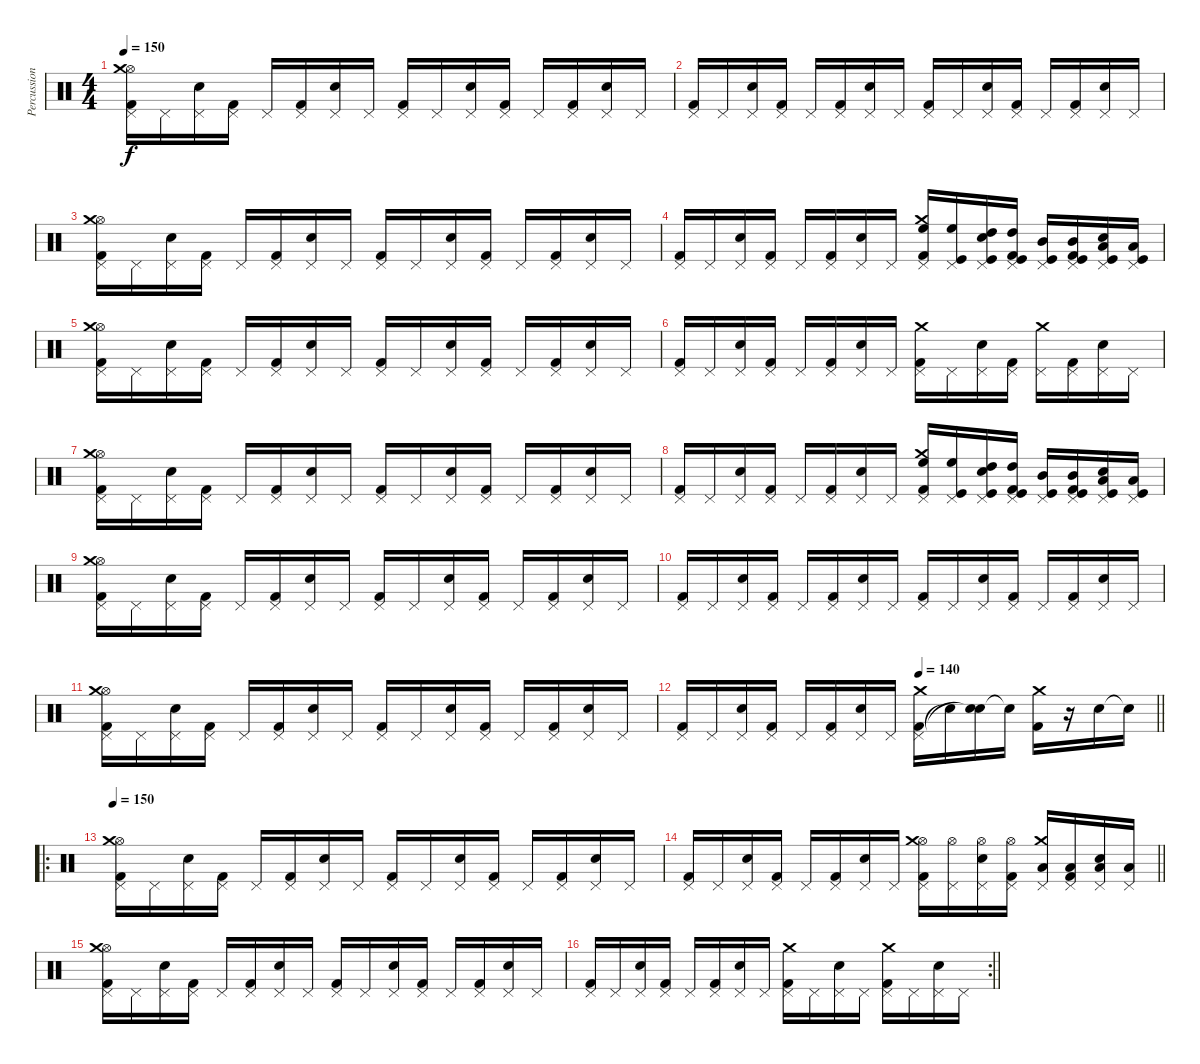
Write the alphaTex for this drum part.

\track ("Percussion" "Percussion") {instrument percussion}
\staff {score}
\articulation defaults
\ts (4 4)
\tempo 150
\clef neutral
\ks c
("Pedal Hi-Hat (hit)" "Kick (hit) 2" "Hi-Hat (open)" "Crash medium (hit)").16{dy f} "Pedal Hi-Hat (hit)".16 ("Pedal Hi-Hat (hit)" "Snare (hit) 2").16 ("Pedal Hi-Hat (hit)" "Kick (hit) 2").16 "Pedal Hi-Hat (hit)".16 ("Pedal Hi-Hat (hit)" "Kick (hit) 2").16 ("Pedal Hi-Hat (hit)" "Snare (hit) 2").16 "Pedal Hi-Hat (hit)".16 ("Pedal Hi-Hat (hit)" "Kick (hit) 2").16 "Pedal Hi-Hat (hit)".16 ("Pedal Hi-Hat (hit)" "Snare (hit) 2").16 ("Pedal Hi-Hat (hit)" "Kick (hit) 2").16 "Pedal Hi-Hat (hit)".16 ("Pedal Hi-Hat (hit)" "Kick (hit) 2").16 ("Pedal Hi-Hat (hit)" "Snare (hit) 2").16 "Pedal Hi-Hat (hit)".16 |
("Pedal Hi-Hat (hit)" "Kick (hit) 2").16 "Pedal Hi-Hat (hit)".16 ("Pedal Hi-Hat (hit)" "Snare (hit) 2").16 ("Pedal Hi-Hat (hit)" "Kick (hit) 2").16 "Pedal Hi-Hat (hit)".16 ("Pedal Hi-Hat (hit)" "Kick (hit) 2").16 ("Pedal Hi-Hat (hit)" "Snare (hit) 2").16 "Pedal Hi-Hat (hit)".16 ("Pedal Hi-Hat (hit)" "Kick (hit) 2").16 "Pedal Hi-Hat (hit)".16 ("Pedal Hi-Hat (hit)" "Snare (hit) 2").16 ("Pedal Hi-Hat (hit)" "Kick (hit) 2").16 "Pedal Hi-Hat (hit)".16 ("Pedal Hi-Hat (hit)" "Kick (hit) 2").16 ("Pedal Hi-Hat (hit)" "Snare (hit) 2").16 "Pedal Hi-Hat (hit)".16 |
("Pedal Hi-Hat (hit)" "Kick (hit) 2" "Hi-Hat (open)" "Crash medium (hit)").16 "Pedal Hi-Hat (hit)".16 ("Pedal Hi-Hat (hit)" "Snare (hit) 2").16 ("Pedal Hi-Hat (hit)" "Kick (hit) 2").16 "Pedal Hi-Hat (hit)".16 ("Pedal Hi-Hat (hit)" "Kick (hit) 2").16 ("Pedal Hi-Hat (hit)" "Snare (hit) 2").16 "Pedal Hi-Hat (hit)".16 ("Pedal Hi-Hat (hit)" "Kick (hit) 2").16 "Pedal Hi-Hat (hit)".16 ("Pedal Hi-Hat (hit)" "Snare (hit) 2").16 ("Pedal Hi-Hat (hit)" "Kick (hit) 2").16 "Pedal Hi-Hat (hit)".16 ("Pedal Hi-Hat (hit)" "Kick (hit) 2").16 ("Pedal Hi-Hat (hit)" "Snare (hit) 2").16 "Pedal Hi-Hat (hit)".16 |
("Pedal Hi-Hat (hit)" "Kick (hit) 2").16 "Pedal Hi-Hat (hit)".16 ("Pedal Hi-Hat (hit)" "Snare (hit) 2").16 ("Pedal Hi-Hat (hit)" "Kick (hit) 2").16 "Pedal Hi-Hat (hit)".16 ("Pedal Hi-Hat (hit)" "Kick (hit) 2").16 ("Pedal Hi-Hat (hit)" "Snare (hit) 2").16 "Pedal Hi-Hat (hit)".16 ("Pedal Hi-Hat (hit)" "Kick (hit) 2" "High Floor Tom (hit)" "Crash medium (hit)").16 ("Pedal Hi-Hat (hit)" "Kick (hit)" "High Floor Tom (hit)").16 ("Pedal Hi-Hat (hit)" "Snare (hit) 2" "Kick (hit)" "High Tom (hit)").16 ("Pedal Hi-Hat (hit)" "Kick (hit) 2" "Kick (hit)" "High Tom (hit)").16 ("Pedal Hi-Hat (hit)" "Kick (hit)" "Mid Tom (hit)").16 ("Pedal Hi-Hat (hit)" "Kick (hit) 2" "Kick (hit)" "Mid Tom (hit)").16 ("Pedal Hi-Hat (hit)" "Snare (hit) 2" "Kick (hit)" "Low Tom (hit)").16 ("Pedal Hi-Hat (hit)" "Kick (hit)" "Low Tom (hit)").16 |
("Pedal Hi-Hat (hit)" "Kick (hit) 2" "Hi-Hat (open)" "Crash medium (hit)").16 "Pedal Hi-Hat (hit)".16 ("Pedal Hi-Hat (hit)" "Snare (hit) 2").16 ("Pedal Hi-Hat (hit)" "Kick (hit) 2").16 "Pedal Hi-Hat (hit)".16 ("Pedal Hi-Hat (hit)" "Kick (hit) 2").16 ("Pedal Hi-Hat (hit)" "Snare (hit) 2").16 "Pedal Hi-Hat (hit)".16 ("Pedal Hi-Hat (hit)" "Kick (hit) 2").16 "Pedal Hi-Hat (hit)".16 ("Pedal Hi-Hat (hit)" "Snare (hit) 2").16 ("Pedal Hi-Hat (hit)" "Kick (hit) 2").16 "Pedal Hi-Hat (hit)".16 ("Pedal Hi-Hat (hit)" "Kick (hit) 2").16 ("Pedal Hi-Hat (hit)" "Snare (hit) 2").16 "Pedal Hi-Hat (hit)".16 |
("Pedal Hi-Hat (hit)" "Kick (hit) 2").16 "Pedal Hi-Hat (hit)".16 ("Pedal Hi-Hat (hit)" "Snare (hit) 2").16 ("Pedal Hi-Hat (hit)" "Kick (hit) 2").16 "Pedal Hi-Hat (hit)".16 ("Pedal Hi-Hat (hit)" "Kick (hit) 2").16 ("Pedal Hi-Hat (hit)" "Snare (hit) 2").16 "Pedal Hi-Hat (hit)".16 ("Pedal Hi-Hat (hit)" "Kick (hit) 2" "Crash medium (hit)").16 "Pedal Hi-Hat (hit)".16 ("Pedal Hi-Hat (hit)" "Snare (hit) 2").16 ("Pedal Hi-Hat (hit)" "Kick (hit) 2").16 ("Pedal Hi-Hat (hit)" "Crash medium (hit)").16 ("Pedal Hi-Hat (hit)" "Kick (hit) 2").16 ("Pedal Hi-Hat (hit)" "Snare (hit) 2").16 "Pedal Hi-Hat (hit)".16 |
("Pedal Hi-Hat (hit)" "Kick (hit) 2" "Hi-Hat (open)" "Crash medium (hit)").16 "Pedal Hi-Hat (hit)".16 ("Pedal Hi-Hat (hit)" "Snare (hit) 2").16 ("Pedal Hi-Hat (hit)" "Kick (hit) 2").16 "Pedal Hi-Hat (hit)".16 ("Pedal Hi-Hat (hit)" "Kick (hit) 2").16 ("Pedal Hi-Hat (hit)" "Snare (hit) 2").16 "Pedal Hi-Hat (hit)".16 ("Pedal Hi-Hat (hit)" "Kick (hit) 2").16 "Pedal Hi-Hat (hit)".16 ("Pedal Hi-Hat (hit)" "Snare (hit) 2").16 ("Pedal Hi-Hat (hit)" "Kick (hit) 2").16 "Pedal Hi-Hat (hit)".16 ("Pedal Hi-Hat (hit)" "Kick (hit) 2").16 ("Pedal Hi-Hat (hit)" "Snare (hit) 2").16 "Pedal Hi-Hat (hit)".16 |
("Pedal Hi-Hat (hit)" "Kick (hit) 2").16 "Pedal Hi-Hat (hit)".16 ("Pedal Hi-Hat (hit)" "Snare (hit) 2").16 ("Pedal Hi-Hat (hit)" "Kick (hit) 2").16 "Pedal Hi-Hat (hit)".16 ("Pedal Hi-Hat (hit)" "Kick (hit) 2").16 ("Pedal Hi-Hat (hit)" "Snare (hit) 2").16 "Pedal Hi-Hat (hit)".16 ("Pedal Hi-Hat (hit)" "Kick (hit) 2" "High Floor Tom (hit)" "Crash medium (hit)").16 ("Pedal Hi-Hat (hit)" "Kick (hit)" "High Floor Tom (hit)").16 ("Pedal Hi-Hat (hit)" "Snare (hit) 2" "Kick (hit)" "High Tom (hit)").16 ("Pedal Hi-Hat (hit)" "Kick (hit) 2" "Kick (hit)" "High Tom (hit)").16 ("Pedal Hi-Hat (hit)" "Kick (hit)" "Mid Tom (hit)").16 ("Pedal Hi-Hat (hit)" "Kick (hit) 2" "Kick (hit)" "Mid Tom (hit)").16 ("Pedal Hi-Hat (hit)" "Snare (hit) 2" "Kick (hit)" "Low Tom (hit)").16 ("Pedal Hi-Hat (hit)" "Kick (hit)" "Low Tom (hit)").16 |
("Pedal Hi-Hat (hit)" "Kick (hit) 2" "Hi-Hat (open)" "Crash medium (hit)").16 "Pedal Hi-Hat (hit)".16 ("Pedal Hi-Hat (hit)" "Snare (hit) 2").16 ("Pedal Hi-Hat (hit)" "Kick (hit) 2").16 "Pedal Hi-Hat (hit)".16 ("Pedal Hi-Hat (hit)" "Kick (hit) 2").16 ("Pedal Hi-Hat (hit)" "Snare (hit) 2").16 "Pedal Hi-Hat (hit)".16 ("Pedal Hi-Hat (hit)" "Kick (hit) 2").16 "Pedal Hi-Hat (hit)".16 ("Pedal Hi-Hat (hit)" "Snare (hit) 2").16 ("Pedal Hi-Hat (hit)" "Kick (hit) 2").16 "Pedal Hi-Hat (hit)".16 ("Pedal Hi-Hat (hit)" "Kick (hit) 2").16 ("Pedal Hi-Hat (hit)" "Snare (hit) 2").16 "Pedal Hi-Hat (hit)".16 |
("Pedal Hi-Hat (hit)" "Kick (hit) 2").16 "Pedal Hi-Hat (hit)".16 ("Pedal Hi-Hat (hit)" "Snare (hit) 2").16 ("Pedal Hi-Hat (hit)" "Kick (hit) 2").16 "Pedal Hi-Hat (hit)".16 ("Pedal Hi-Hat (hit)" "Kick (hit) 2").16 ("Pedal Hi-Hat (hit)" "Snare (hit) 2").16 "Pedal Hi-Hat (hit)".16 ("Pedal Hi-Hat (hit)" "Kick (hit) 2").16 "Pedal Hi-Hat (hit)".16 ("Pedal Hi-Hat (hit)" "Snare (hit) 2").16 ("Pedal Hi-Hat (hit)" "Kick (hit) 2").16 "Pedal Hi-Hat (hit)".16 ("Pedal Hi-Hat (hit)" "Kick (hit) 2").16 ("Pedal Hi-Hat (hit)" "Snare (hit) 2").16 "Pedal Hi-Hat (hit)".16 |
("Pedal Hi-Hat (hit)" "Kick (hit) 2" "Hi-Hat (open)" "Crash medium (hit)").16 "Pedal Hi-Hat (hit)".16 ("Pedal Hi-Hat (hit)" "Snare (hit) 2").16 ("Pedal Hi-Hat (hit)" "Kick (hit) 2").16 "Pedal Hi-Hat (hit)".16 ("Pedal Hi-Hat (hit)" "Kick (hit) 2").16 ("Pedal Hi-Hat (hit)" "Snare (hit) 2").16 "Pedal Hi-Hat (hit)".16 ("Pedal Hi-Hat (hit)" "Kick (hit) 2").16 "Pedal Hi-Hat (hit)".16 ("Pedal Hi-Hat (hit)" "Snare (hit) 2").16 ("Pedal Hi-Hat (hit)" "Kick (hit) 2").16 "Pedal Hi-Hat (hit)".16 ("Pedal Hi-Hat (hit)" "Kick (hit) 2").16 ("Pedal Hi-Hat (hit)" "Snare (hit) 2").16 "Pedal Hi-Hat (hit)".16 |
\tempo (140 0.5)
\barLineRight lightlight
("Pedal Hi-Hat (hit)" "Kick (hit) 2").16 "Pedal Hi-Hat (hit)".16 ("Pedal Hi-Hat (hit)" "Snare (hit) 2").16 ("Pedal Hi-Hat (hit)" "Kick (hit) 2").16 "Pedal Hi-Hat (hit)".16 ("Pedal Hi-Hat (hit)" "Kick (hit) 2").16 ("Pedal Hi-Hat (hit)" "Snare (hit) 2").16 "Pedal Hi-Hat (hit)".16 ("Pedal Hi-Hat (hit)" "Kick (hit) 2" "Crash medium (hit)").16 "Snare (hit)"{t}.16 ("Snare (hit) 2" "Snare (hit)"{t}).16 "Snare (hit)"{t}.16 ("Kick (hit) 2" "Crash medium (hit)").16 r.16 "Snare (hit) 2".16 "Snare (hit)"{t}.16 |
\ro
\tempo 150
("Pedal Hi-Hat (hit)" "Kick (hit) 2" "Hi-Hat (open)" "Crash medium (hit)").16 "Pedal Hi-Hat (hit)".16 ("Pedal Hi-Hat (hit)" "Snare (hit) 2").16 ("Pedal Hi-Hat (hit)" "Kick (hit) 2").16 "Pedal Hi-Hat (hit)".16 ("Pedal Hi-Hat (hit)" "Kick (hit) 2").16 ("Pedal Hi-Hat (hit)" "Snare (hit) 2").16 "Pedal Hi-Hat (hit)".16 ("Pedal Hi-Hat (hit)" "Kick (hit) 2").16 "Pedal Hi-Hat (hit)".16 ("Pedal Hi-Hat (hit)" "Snare (hit) 2").16 ("Pedal Hi-Hat (hit)" "Kick (hit) 2").16 "Pedal Hi-Hat (hit)".16 ("Pedal Hi-Hat (hit)" "Kick (hit) 2").16 ("Pedal Hi-Hat (hit)" "Snare (hit) 2").16 "Pedal Hi-Hat (hit)".16 |
\barLineRight lightlight
("Pedal Hi-Hat (hit)" "Kick (hit) 2").16 "Pedal Hi-Hat (hit)".16 ("Pedal Hi-Hat (hit)" "Snare (hit) 2").16 ("Pedal Hi-Hat (hit)" "Kick (hit) 2").16 "Pedal Hi-Hat (hit)".16 ("Pedal Hi-Hat (hit)" "Kick (hit) 2").16 ("Pedal Hi-Hat (hit)" "Snare (hit) 2").16 "Pedal Hi-Hat (hit)".16 ("Pedal Hi-Hat (hit)" "Kick (hit) 2" "Hi-Hat (open)" "Crash medium (hit)").16 ("Pedal Hi-Hat (hit)" "Hi-Hat (open)").16 ("Pedal Hi-Hat (hit)" "Snare (hit) 2" "Hi-Hat (open)").16 ("Pedal Hi-Hat (hit)" "Kick (hit) 2" "Hi-Hat (open)").16 ("Pedal Hi-Hat (hit)" "Low Tom (hit)" "Crash medium (hit)").16 ("Pedal Hi-Hat (hit)" "Kick (hit) 2" "Low Tom (hit)").16 ("Pedal Hi-Hat (hit)" "Snare (hit) 2" "Low Tom (hit)").16 ("Pedal Hi-Hat (hit)" "Low Tom (hit)").16 |
("Pedal Hi-Hat (hit)" "Kick (hit) 2" "Hi-Hat (open)" "Crash medium (hit)").16 "Pedal Hi-Hat (hit)".16 ("Pedal Hi-Hat (hit)" "Snare (hit) 2").16 ("Pedal Hi-Hat (hit)" "Kick (hit) 2").16 "Pedal Hi-Hat (hit)".16 ("Pedal Hi-Hat (hit)" "Kick (hit) 2").16 ("Pedal Hi-Hat (hit)" "Snare (hit) 2").16 "Pedal Hi-Hat (hit)".16 ("Pedal Hi-Hat (hit)" "Kick (hit) 2").16 "Pedal Hi-Hat (hit)".16 ("Pedal Hi-Hat (hit)" "Snare (hit) 2").16 ("Pedal Hi-Hat (hit)" "Kick (hit) 2").16 "Pedal Hi-Hat (hit)".16 ("Pedal Hi-Hat (hit)" "Kick (hit) 2").16 ("Pedal Hi-Hat (hit)" "Snare (hit) 2").16 "Pedal Hi-Hat (hit)".16 |
\rc 2
\barLineRight lightlight
("Pedal Hi-Hat (hit)" "Kick (hit) 2").16 "Pedal Hi-Hat (hit)".16 ("Pedal Hi-Hat (hit)" "Snare (hit) 2").16 ("Pedal Hi-Hat (hit)" "Kick (hit) 2").16 "Pedal Hi-Hat (hit)".16 ("Pedal Hi-Hat (hit)" "Kick (hit) 2").16 ("Pedal Hi-Hat (hit)" "Snare (hit) 2").16 "Pedal Hi-Hat (hit)".16 ("Pedal Hi-Hat (hit)" "Kick (hit) 2" "Crash medium (hit)").16 "Pedal Hi-Hat (hit)".16 ("Pedal Hi-Hat (hit)" "Snare (hit) 2").16 "Pedal Hi-Hat (hit)".16 ("Pedal Hi-Hat (hit)" "Kick (hit) 2" "Crash medium (hit)").16 "Pedal Hi-Hat (hit)".16 ("Pedal Hi-Hat (hit)" "Snare (hit) 2").16 "Pedal Hi-Hat (hit)".16
